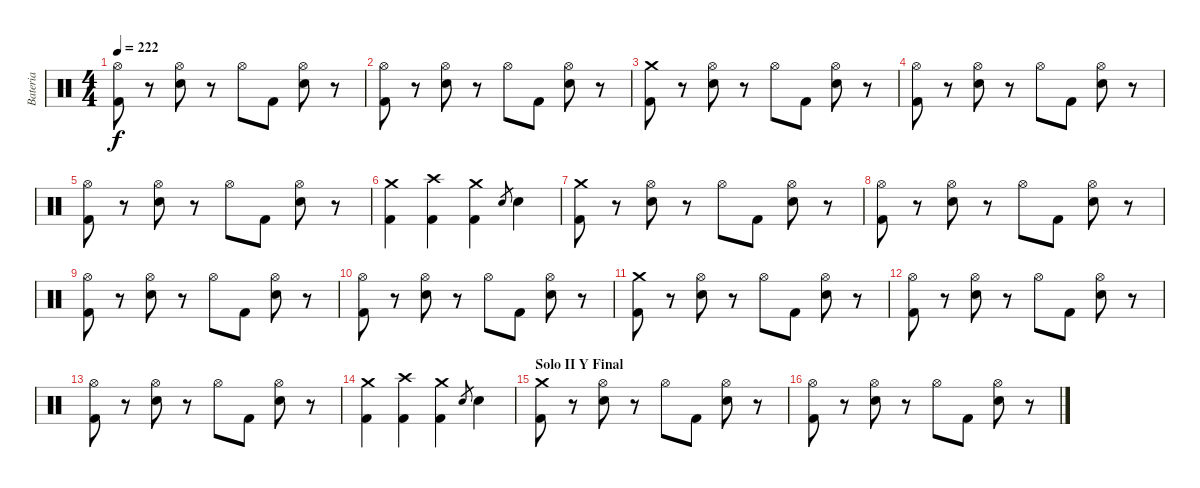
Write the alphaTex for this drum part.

\track ("Bateria" "Bateria") {instrument percussion}
\staff {score}
\articulation defaults
\ts (4 4)
\tempo 222
\clef neutral
\ks c
("Hi-Hat (open)" "Kick (hit) 2").8{dy f} r.8 ("Hi-Hat (open)" "Electric Snare (hit)").8 r.8 "Hi-Hat (open)".8 "Kick (hit) 2".8 ("Hi-Hat (open)" "Electric Snare (hit)").8 r.8 |
("Hi-Hat (open)" "Kick (hit) 2").8 r.8 ("Hi-Hat (open)" "Electric Snare (hit)").8 r.8 "Hi-Hat (open)".8 "Kick (hit) 2".8 ("Hi-Hat (open)" "Electric Snare (hit)").8 r.8 |
("Crash medium (hit)" "Kick (hit) 2").8{volume 13} r.8 ("Hi-Hat (open)" "Electric Snare (hit)").8 r.8 "Hi-Hat (open)".8 "Kick (hit) 2".8 ("Hi-Hat (open)" "Electric Snare (hit)").8 r.8 |
("Hi-Hat (open)" "Kick (hit) 2").8 r.8 ("Hi-Hat (open)" "Electric Snare (hit)").8 r.8 "Hi-Hat (open)".8 "Kick (hit) 2".8 ("Hi-Hat (open)" "Electric Snare (hit)").8 r.8 |
("Hi-Hat (open)" "Kick (hit) 2").8 r.8 ("Hi-Hat (open)" "Electric Snare (hit)").8 r.8 "Hi-Hat (open)".8 "Kick (hit) 2".8 ("Hi-Hat (open)" "Electric Snare (hit)").8 r.8 |
("Crash medium (hit)" "Kick (hit) 2").4 ("Crash high (hit)" "Kick (hit) 2").4 ("Crash medium (hit)" "Kick (hit) 2").4 "Electric Snare (hit)".8{gr} "Electric Snare (hit)".4 |
("Crash medium (hit)" "Kick (hit) 2").8{volume 13} r.8 ("Hi-Hat (open)" "Electric Snare (hit)").8 r.8 "Hi-Hat (open)".8 "Kick (hit) 2".8 ("Hi-Hat (open)" "Electric Snare (hit)").8 r.8 |
("Hi-Hat (open)" "Kick (hit) 2").8 r.8 ("Hi-Hat (open)" "Electric Snare (hit)").8 r.8 "Hi-Hat (open)".8 "Kick (hit) 2".8 ("Hi-Hat (open)" "Electric Snare (hit)").8 r.8 |
("Hi-Hat (open)" "Kick (hit) 2").8 r.8 ("Hi-Hat (open)" "Electric Snare (hit)").8 r.8 "Hi-Hat (open)".8 "Kick (hit) 2".8 ("Hi-Hat (open)" "Electric Snare (hit)").8 r.8 |
("Hi-Hat (open)" "Kick (hit) 2").8 r.8 ("Hi-Hat (open)" "Electric Snare (hit)").8 r.8 "Hi-Hat (open)".8 "Kick (hit) 2".8 ("Hi-Hat (open)" "Electric Snare (hit)").8 r.8 |
("Crash medium (hit)" "Kick (hit) 2").8{volume 13} r.8 ("Hi-Hat (open)" "Electric Snare (hit)").8 r.8 "Hi-Hat (open)".8 "Kick (hit) 2".8 ("Hi-Hat (open)" "Electric Snare (hit)").8 r.8 |
("Hi-Hat (open)" "Kick (hit) 2").8 r.8 ("Hi-Hat (open)" "Electric Snare (hit)").8 r.8 "Hi-Hat (open)".8 "Kick (hit) 2".8 ("Hi-Hat (open)" "Electric Snare (hit)").8 r.8 |
("Hi-Hat (open)" "Kick (hit) 2").8 r.8 ("Hi-Hat (open)" "Electric Snare (hit)").8 r.8 "Hi-Hat (open)".8 "Kick (hit) 2".8 ("Hi-Hat (open)" "Electric Snare (hit)").8 r.8 |
("Crash medium (hit)" "Kick (hit) 2").4 ("Crash high (hit)" "Kick (hit) 2").4 ("Crash medium (hit)" "Kick (hit) 2").4 "Electric Snare (hit)".8{gr} "Electric Snare (hit)".4 |
\section ("" "Solo II Y Final")
("Crash medium (hit)" "Kick (hit) 2").8{volume 13} r.8 ("Hi-Hat (open)" "Electric Snare (hit)").8 r.8 "Hi-Hat (open)".8 "Kick (hit) 2".8 ("Hi-Hat (open)" "Electric Snare (hit)").8 r.8 |
("Hi-Hat (open)" "Kick (hit) 2").8 r.8 ("Hi-Hat (open)" "Electric Snare (hit)").8 r.8 "Hi-Hat (open)".8 "Kick (hit) 2".8 ("Hi-Hat (open)" "Electric Snare (hit)").8 r.8
